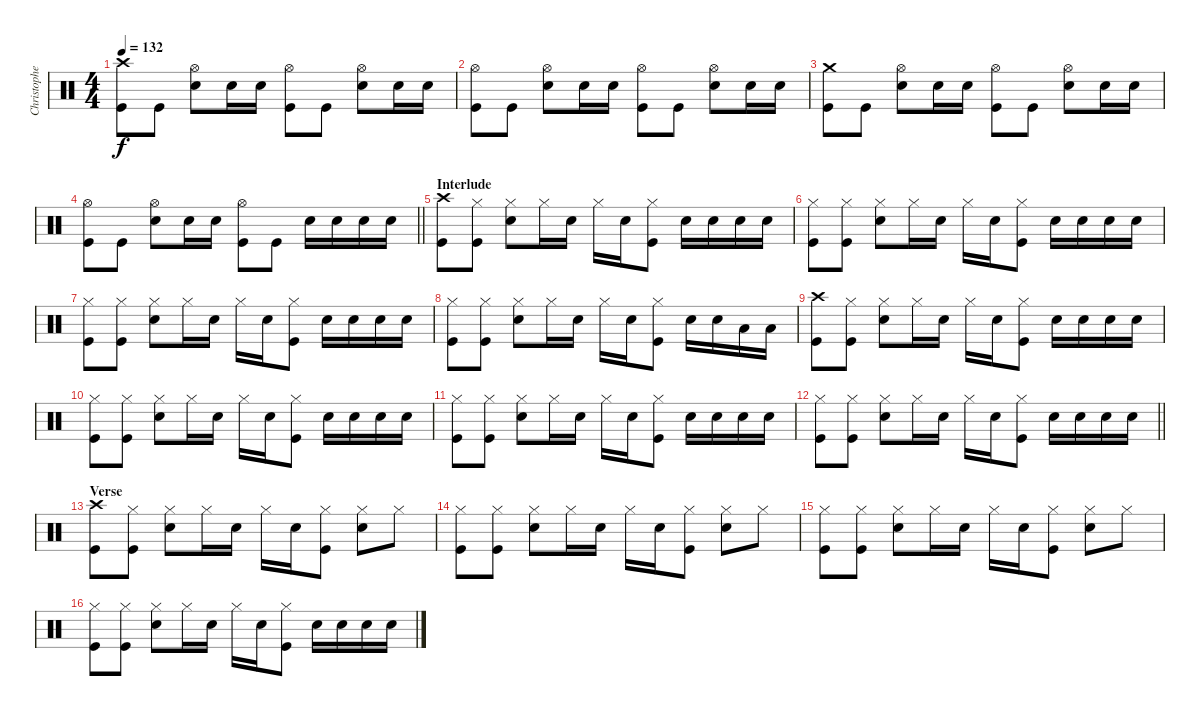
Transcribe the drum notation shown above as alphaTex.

\track ("Christopher - Drums" "Christophe") {instrument percussion}
\staff {score}
\articulation defaults
\ts (4 4)
\tempo 132
\clef neutral
\ks c
("Crash high (hit)" "Kick (hit)").8{dy f} "Kick (hit)".8 ("Hi-Hat (open)" "Snare (hit) 2").8 "Snare (hit) 2".16 "Snare (hit) 2".16 ("Hi-Hat (open)" "Kick (hit)").8 "Kick (hit)".8 ("Hi-Hat (open)" "Snare (hit) 2").8 "Snare (hit) 2".16 "Snare (hit) 2".16 |
("Hi-Hat (open)" "Kick (hit)").8 "Kick (hit)".8 ("Hi-Hat (open)" "Snare (hit) 2").8 "Snare (hit) 2".16 "Snare (hit) 2".16 ("Hi-Hat (open)" "Kick (hit)").8 "Kick (hit)".8 ("Hi-Hat (open)" "Snare (hit) 2").8 "Snare (hit) 2".16 "Snare (hit) 2".16 |
("Crash medium (hit)" "Kick (hit)").8 "Kick (hit)".8 ("Hi-Hat (open)" "Snare (hit) 2").8 "Snare (hit) 2".16 "Snare (hit) 2".16 ("Hi-Hat (open)" "Kick (hit)").8 "Kick (hit)".8 ("Hi-Hat (open)" "Snare (hit) 2").8 "Snare (hit) 2".16 "Snare (hit) 2".16 |
\barLineRight lightlight
("Hi-Hat (open)" "Kick (hit)").8 "Kick (hit)".8 ("Hi-Hat (open)" "Snare (hit) 2").8 "Snare (hit) 2".16 "Snare (hit) 2".16 ("Hi-Hat (open)" "Kick (hit)").8 "Kick (hit)".8 "Snare (hit) 2".16 "Snare (hit) 2".16 "Snare (hit) 2".16 "Snare (hit) 2".16 |
\section ("" "Interlude")
("Crash high (hit)" "Kick (hit)").8 ("Hi-Hat (closed)" "Kick (hit)").8 ("Hi-Hat (closed)" "Snare (hit) 2").8 "Hi-Hat (closed)".16 "Snare (hit) 2".16 "Hi-Hat (closed)".16 "Snare (hit) 2".16 ("Hi-Hat (closed)" "Kick (hit)").8 "Snare (hit) 2".16 "Snare (hit) 2".16 "Snare (hit) 2".16 "Snare (hit) 2".16 |
("Hi-Hat (closed)" "Kick (hit)").8 ("Hi-Hat (closed)" "Kick (hit)").8 ("Hi-Hat (closed)" "Snare (hit) 2").8 "Hi-Hat (closed)".16 "Snare (hit) 2".16 "Hi-Hat (closed)".16 "Snare (hit) 2".16 ("Hi-Hat (closed)" "Kick (hit)").8 "Snare (hit) 2".16 "Snare (hit) 2".16 "Snare (hit) 2".16 "Snare (hit) 2".16 |
("Hi-Hat (closed)" "Kick (hit)").8 ("Hi-Hat (closed)" "Kick (hit)").8 ("Hi-Hat (closed)" "Snare (hit) 2").8 "Hi-Hat (closed)".16 "Snare (hit) 2".16 "Hi-Hat (closed)".16 "Snare (hit) 2".16 ("Hi-Hat (closed)" "Kick (hit)").8 "Snare (hit) 2".16 "Snare (hit) 2".16 "Snare (hit) 2".16 "Snare (hit) 2".16 |
("Hi-Hat (closed)" "Kick (hit)").8 ("Hi-Hat (closed)" "Kick (hit)").8 ("Hi-Hat (closed)" "Snare (hit) 2").8 "Hi-Hat (closed)".16 "Snare (hit) 2".16 "Hi-Hat (closed)".16 "Snare (hit) 2".16 ("Hi-Hat (closed)" "Kick (hit)").8 "Snare (hit) 2".16 "Snare (hit) 2".16 "Low Tom (hit)".16 "Low Tom (hit)".16 |
("Crash high (hit)" "Kick (hit)").8 ("Hi-Hat (closed)" "Kick (hit)").8 ("Hi-Hat (closed)" "Snare (hit) 2").8 "Hi-Hat (closed)".16 "Snare (hit) 2".16 "Hi-Hat (closed)".16 "Snare (hit) 2".16 ("Hi-Hat (closed)" "Kick (hit)").8 "Snare (hit) 2".16 "Snare (hit) 2".16 "Snare (hit) 2".16 "Snare (hit) 2".16 |
("Hi-Hat (closed)" "Kick (hit)").8 ("Hi-Hat (closed)" "Kick (hit)").8 ("Hi-Hat (closed)" "Snare (hit) 2").8 "Hi-Hat (closed)".16 "Snare (hit) 2".16 "Hi-Hat (closed)".16 "Snare (hit) 2".16 ("Hi-Hat (closed)" "Kick (hit)").8 "Snare (hit) 2".16 "Snare (hit) 2".16 "Snare (hit) 2".16 "Snare (hit) 2".16 |
("Hi-Hat (closed)" "Kick (hit)").8 ("Hi-Hat (closed)" "Kick (hit)").8 ("Hi-Hat (closed)" "Snare (hit) 2").8 "Hi-Hat (closed)".16 "Snare (hit) 2".16 "Hi-Hat (closed)".16 "Snare (hit) 2".16 ("Hi-Hat (closed)" "Kick (hit)").8 "Snare (hit) 2".16 "Snare (hit) 2".16 "Snare (hit) 2".16 "Snare (hit) 2".16 |
\barLineRight lightlight
("Hi-Hat (closed)" "Kick (hit)").8 ("Hi-Hat (closed)" "Kick (hit)").8 ("Hi-Hat (closed)" "Snare (hit) 2").8 "Hi-Hat (closed)".16 "Snare (hit) 2".16 "Hi-Hat (closed)".16 "Snare (hit) 2".16 ("Hi-Hat (closed)" "Kick (hit)").8 "Snare (hit) 2".16 "Snare (hit) 2".16 "Snare (hit) 2".16 "Snare (hit) 2".16 |
\section ("" "Verse")
("Crash high (hit)" "Kick (hit)").8 ("Hi-Hat (closed)" "Kick (hit)").8 ("Hi-Hat (closed)" "Snare (hit) 2").8 "Hi-Hat (closed)".16 "Snare (hit) 2".16 "Hi-Hat (closed)".16 "Snare (hit) 2".16 ("Hi-Hat (closed)" "Kick (hit)").8 ("Hi-Hat (closed)" "Snare (hit) 2").8 "Hi-Hat (closed)".8 |
("Hi-Hat (closed)" "Kick (hit)").8 ("Hi-Hat (closed)" "Kick (hit)").8 ("Hi-Hat (closed)" "Snare (hit) 2").8 "Hi-Hat (closed)".16 "Snare (hit) 2".16 "Hi-Hat (closed)".16 "Snare (hit) 2".16 ("Hi-Hat (closed)" "Kick (hit)").8 ("Hi-Hat (closed)" "Snare (hit) 2").8 "Hi-Hat (closed)".8 |
("Hi-Hat (closed)" "Kick (hit)").8 ("Hi-Hat (closed)" "Kick (hit)").8 ("Hi-Hat (closed)" "Snare (hit) 2").8 "Hi-Hat (closed)".16 "Snare (hit) 2".16 "Hi-Hat (closed)".16 "Snare (hit) 2".16 ("Hi-Hat (closed)" "Kick (hit)").8 ("Hi-Hat (closed)" "Snare (hit) 2").8 "Hi-Hat (closed)".8 |
("Hi-Hat (closed)" "Kick (hit)").8 ("Hi-Hat (closed)" "Kick (hit)").8 ("Hi-Hat (closed)" "Snare (hit) 2").8 "Hi-Hat (closed)".16 "Snare (hit) 2".16 "Hi-Hat (closed)".16 "Snare (hit) 2".16 ("Hi-Hat (closed)" "Kick (hit)").8 "Snare (hit) 2".16 "Snare (hit) 2".16 "Snare (hit) 2".16 "Snare (hit) 2".16
